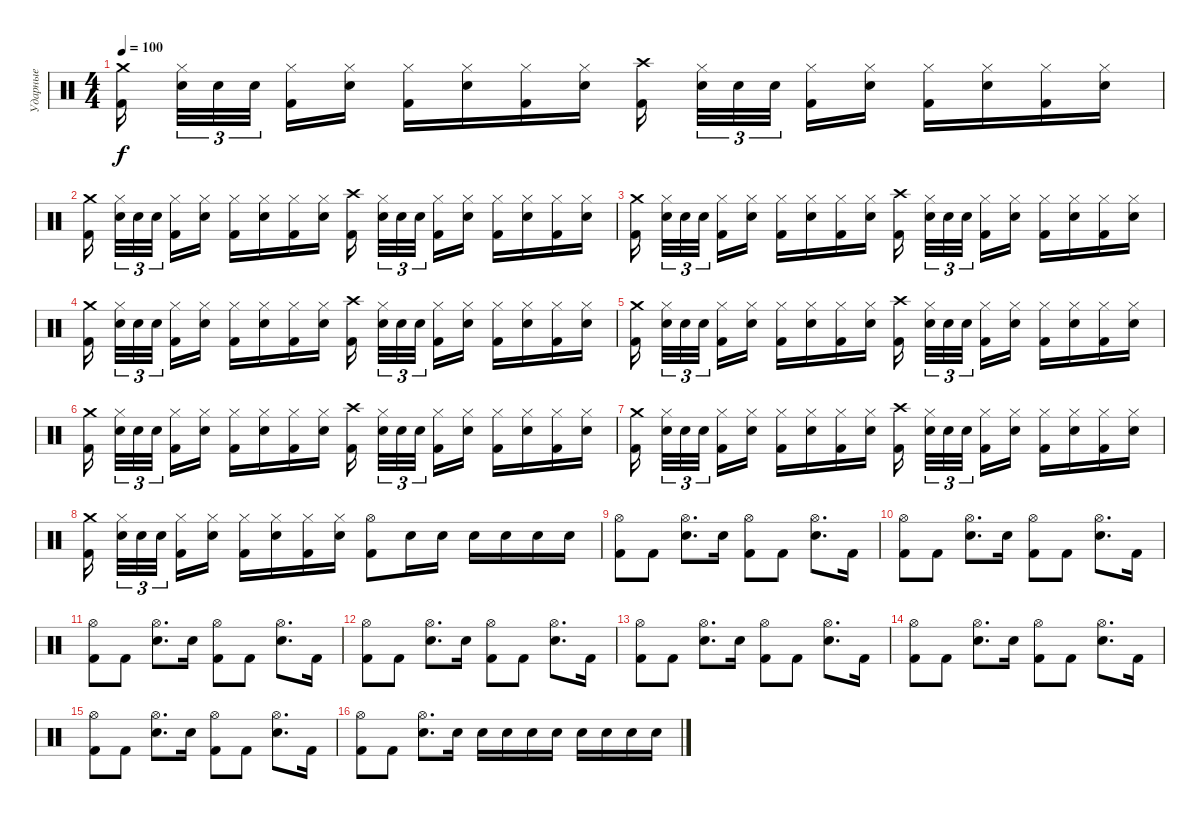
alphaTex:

\track ("Ударные" "Ударные") {instrument percussion}
\staff {score}
\articulation defaults
\ts (4 4)
\tempo 100
\clef neutral
\ks c
("Crash medium (hit)" "Kick (hit) 2").16{dy f beam splitsecondary} ("Hi-Hat (closed)" "Snare (hit) 2").32{tu (3 2)} "Snare (hit) 2".32{tu (3 2)} "Snare (hit) 2".32{tu (3 2) beam splitsecondary} ("Hi-Hat (closed)" "Kick (hit) 2").16 ("Hi-Hat (closed)" "Snare (hit) 2").16 ("Hi-Hat (closed)" "Kick (hit) 2").16 ("Hi-Hat (closed)" "Snare (hit) 2").16 ("Hi-Hat (closed)" "Kick (hit) 2").16 ("Hi-Hat (closed)" "Snare (hit) 2").16 ("Crash high (hit)" "Kick (hit) 2").16{beam splitsecondary} ("Hi-Hat (closed)" "Snare (hit) 2").32{tu (3 2)} "Snare (hit) 2".32{tu (3 2)} "Snare (hit) 2".32{tu (3 2) beam splitsecondary} ("Hi-Hat (closed)" "Kick (hit) 2").16 ("Hi-Hat (closed)" "Snare (hit) 2").16 ("Hi-Hat (closed)" "Kick (hit) 2").16 ("Hi-Hat (closed)" "Snare (hit) 2").16 ("Hi-Hat (closed)" "Kick (hit) 2").16 ("Hi-Hat (closed)" "Snare (hit) 2").16 |
("Crash medium (hit)" "Kick (hit) 2").16{beam splitsecondary} ("Hi-Hat (closed)" "Snare (hit) 2").32{tu (3 2)} "Snare (hit) 2".32{tu (3 2)} "Snare (hit) 2".32{tu (3 2) beam splitsecondary} ("Hi-Hat (closed)" "Kick (hit) 2").16 ("Hi-Hat (closed)" "Snare (hit) 2").16 ("Hi-Hat (closed)" "Kick (hit) 2").16 ("Hi-Hat (closed)" "Snare (hit) 2").16 ("Hi-Hat (closed)" "Kick (hit) 2").16 ("Hi-Hat (closed)" "Snare (hit) 2").16 ("Crash high (hit)" "Kick (hit) 2").16{beam splitsecondary} ("Hi-Hat (closed)" "Snare (hit) 2").32{tu (3 2)} "Snare (hit) 2".32{tu (3 2)} "Snare (hit) 2".32{tu (3 2) beam splitsecondary} ("Hi-Hat (closed)" "Kick (hit) 2").16 ("Hi-Hat (closed)" "Snare (hit) 2").16 ("Hi-Hat (closed)" "Kick (hit) 2").16 ("Hi-Hat (closed)" "Snare (hit) 2").16 ("Hi-Hat (closed)" "Kick (hit) 2").16 ("Hi-Hat (closed)" "Snare (hit) 2").16 |
("Crash medium (hit)" "Kick (hit) 2").16{beam splitsecondary} ("Hi-Hat (closed)" "Snare (hit) 2").32{tu (3 2)} "Snare (hit) 2".32{tu (3 2)} "Snare (hit) 2".32{tu (3 2) beam splitsecondary} ("Hi-Hat (closed)" "Kick (hit) 2").16 ("Hi-Hat (closed)" "Snare (hit) 2").16 ("Hi-Hat (closed)" "Kick (hit) 2").16 ("Hi-Hat (closed)" "Snare (hit) 2").16 ("Hi-Hat (closed)" "Kick (hit) 2").16 ("Hi-Hat (closed)" "Snare (hit) 2").16 ("Crash high (hit)" "Kick (hit) 2").16{beam splitsecondary} ("Hi-Hat (closed)" "Snare (hit) 2").32{tu (3 2)} "Snare (hit) 2".32{tu (3 2)} "Snare (hit) 2".32{tu (3 2) beam splitsecondary} ("Hi-Hat (closed)" "Kick (hit) 2").16 ("Hi-Hat (closed)" "Snare (hit) 2").16 ("Hi-Hat (closed)" "Kick (hit) 2").16 ("Hi-Hat (closed)" "Snare (hit) 2").16 ("Hi-Hat (closed)" "Kick (hit) 2").16 ("Hi-Hat (closed)" "Snare (hit) 2").16 |
("Crash medium (hit)" "Kick (hit) 2").16{beam splitsecondary} ("Hi-Hat (closed)" "Snare (hit) 2").32{tu (3 2)} "Snare (hit) 2".32{tu (3 2)} "Snare (hit) 2".32{tu (3 2) beam splitsecondary} ("Hi-Hat (closed)" "Kick (hit) 2").16 ("Hi-Hat (closed)" "Snare (hit) 2").16 ("Hi-Hat (closed)" "Kick (hit) 2").16 ("Hi-Hat (closed)" "Snare (hit) 2").16 ("Hi-Hat (closed)" "Kick (hit) 2").16 ("Hi-Hat (closed)" "Snare (hit) 2").16 ("Crash high (hit)" "Kick (hit) 2").16{beam splitsecondary} ("Hi-Hat (closed)" "Snare (hit) 2").32{tu (3 2)} "Snare (hit) 2".32{tu (3 2)} "Snare (hit) 2".32{tu (3 2) beam splitsecondary} ("Hi-Hat (closed)" "Kick (hit) 2").16 ("Hi-Hat (closed)" "Snare (hit) 2").16 ("Hi-Hat (closed)" "Kick (hit) 2").16 ("Hi-Hat (closed)" "Snare (hit) 2").16 ("Hi-Hat (closed)" "Kick (hit) 2").16 ("Hi-Hat (closed)" "Snare (hit) 2").16 |
("Crash medium (hit)" "Kick (hit) 2").16{beam splitsecondary} ("Hi-Hat (closed)" "Snare (hit) 2").32{tu (3 2)} "Snare (hit) 2".32{tu (3 2)} "Snare (hit) 2".32{tu (3 2) beam splitsecondary} ("Hi-Hat (closed)" "Kick (hit) 2").16 ("Hi-Hat (closed)" "Snare (hit) 2").16 ("Hi-Hat (closed)" "Kick (hit) 2").16 ("Hi-Hat (closed)" "Snare (hit) 2").16 ("Hi-Hat (closed)" "Kick (hit) 2").16 ("Hi-Hat (closed)" "Snare (hit) 2").16 ("Crash high (hit)" "Kick (hit) 2").16{beam splitsecondary} ("Hi-Hat (closed)" "Snare (hit) 2").32{tu (3 2)} "Snare (hit) 2".32{tu (3 2)} "Snare (hit) 2".32{tu (3 2) beam splitsecondary} ("Hi-Hat (closed)" "Kick (hit) 2").16 ("Hi-Hat (closed)" "Snare (hit) 2").16 ("Hi-Hat (closed)" "Kick (hit) 2").16 ("Hi-Hat (closed)" "Snare (hit) 2").16 ("Hi-Hat (closed)" "Kick (hit) 2").16 ("Hi-Hat (closed)" "Snare (hit) 2").16 |
("Crash medium (hit)" "Kick (hit) 2").16{beam splitsecondary} ("Hi-Hat (closed)" "Snare (hit) 2").32{tu (3 2)} "Snare (hit) 2".32{tu (3 2)} "Snare (hit) 2".32{tu (3 2) beam splitsecondary} ("Hi-Hat (closed)" "Kick (hit) 2").16 ("Hi-Hat (closed)" "Snare (hit) 2").16 ("Hi-Hat (closed)" "Kick (hit) 2").16 ("Hi-Hat (closed)" "Snare (hit) 2").16 ("Hi-Hat (closed)" "Kick (hit) 2").16 ("Hi-Hat (closed)" "Snare (hit) 2").16 ("Crash high (hit)" "Kick (hit) 2").16{beam splitsecondary} ("Hi-Hat (closed)" "Snare (hit) 2").32{tu (3 2)} "Snare (hit) 2".32{tu (3 2)} "Snare (hit) 2".32{tu (3 2) beam splitsecondary} ("Hi-Hat (closed)" "Kick (hit) 2").16 ("Hi-Hat (closed)" "Snare (hit) 2").16 ("Hi-Hat (closed)" "Kick (hit) 2").16 ("Hi-Hat (closed)" "Snare (hit) 2").16 ("Hi-Hat (closed)" "Kick (hit) 2").16 ("Hi-Hat (closed)" "Snare (hit) 2").16 |
("Crash medium (hit)" "Kick (hit) 2").16{beam splitsecondary} ("Hi-Hat (closed)" "Snare (hit) 2").32{tu (3 2)} "Snare (hit) 2".32{tu (3 2)} "Snare (hit) 2".32{tu (3 2) beam splitsecondary} ("Hi-Hat (closed)" "Kick (hit) 2").16 ("Hi-Hat (closed)" "Snare (hit) 2").16 ("Hi-Hat (closed)" "Kick (hit) 2").16 ("Hi-Hat (closed)" "Snare (hit) 2").16 ("Hi-Hat (closed)" "Kick (hit) 2").16 ("Hi-Hat (closed)" "Snare (hit) 2").16 ("Crash high (hit)" "Kick (hit) 2").16{beam splitsecondary} ("Hi-Hat (closed)" "Snare (hit) 2").32{tu (3 2)} "Snare (hit) 2".32{tu (3 2)} "Snare (hit) 2".32{tu (3 2) beam splitsecondary} ("Hi-Hat (closed)" "Kick (hit) 2").16 ("Hi-Hat (closed)" "Snare (hit) 2").16 ("Hi-Hat (closed)" "Kick (hit) 2").16 ("Hi-Hat (closed)" "Snare (hit) 2").16 ("Hi-Hat (closed)" "Kick (hit) 2").16 ("Hi-Hat (closed)" "Snare (hit) 2").16 |
("Crash medium (hit)" "Kick (hit) 2").16{beam splitsecondary} ("Hi-Hat (closed)" "Snare (hit) 2").32{tu (3 2)} "Snare (hit) 2".32{tu (3 2)} "Snare (hit) 2".32{tu (3 2) beam splitsecondary} ("Hi-Hat (closed)" "Kick (hit) 2").16 ("Hi-Hat (closed)" "Snare (hit) 2").16 ("Hi-Hat (closed)" "Kick (hit) 2").16 ("Hi-Hat (closed)" "Snare (hit) 2").16 ("Hi-Hat (closed)" "Kick (hit) 2").16 ("Hi-Hat (closed)" "Snare (hit) 2").16 ("Hi-Hat (open)" "Kick (hit) 2").8 "Snare (hit) 2".16 "Snare (hit) 2".16 "Snare (hit) 2".16 "Snare (hit) 2".16 "Snare (hit) 2".16 "Snare (hit) 2".16 |
("Hi-Hat (open)" "Kick (hit) 2").8 "Kick (hit) 2".8 ("Hi-Hat (open)" "Snare (hit) 2").8{d} "Snare (hit) 2".16 ("Hi-Hat (open)" "Kick (hit) 2").8 "Kick (hit) 2".8 ("Hi-Hat (open)" "Snare (hit) 2").8{d} "Kick (hit) 2".16 |
("Hi-Hat (open)" "Kick (hit) 2").8 "Kick (hit) 2".8 ("Hi-Hat (open)" "Snare (hit) 2").8{d} "Snare (hit) 2".16 ("Hi-Hat (open)" "Kick (hit) 2").8 "Kick (hit) 2".8 ("Hi-Hat (open)" "Snare (hit) 2").8{d} "Kick (hit) 2".16 |
("Hi-Hat (open)" "Kick (hit) 2").8 "Kick (hit) 2".8 ("Hi-Hat (open)" "Snare (hit) 2").8{d} "Snare (hit) 2".16 ("Hi-Hat (open)" "Kick (hit) 2").8 "Kick (hit) 2".8 ("Hi-Hat (open)" "Snare (hit) 2").8{d} "Kick (hit) 2".16 |
("Hi-Hat (open)" "Kick (hit) 2").8 "Kick (hit) 2".8 ("Hi-Hat (open)" "Snare (hit) 2").8{d} "Snare (hit) 2".16 ("Hi-Hat (open)" "Kick (hit) 2").8 "Kick (hit) 2".8 ("Hi-Hat (open)" "Snare (hit) 2").8{d} "Kick (hit) 2".16 |
("Hi-Hat (open)" "Kick (hit) 2").8 "Kick (hit) 2".8 ("Hi-Hat (open)" "Snare (hit) 2").8{d} "Snare (hit) 2".16 ("Hi-Hat (open)" "Kick (hit) 2").8 "Kick (hit) 2".8 ("Hi-Hat (open)" "Snare (hit) 2").8{d} "Kick (hit) 2".16 |
("Hi-Hat (open)" "Kick (hit) 2").8 "Kick (hit) 2".8 ("Hi-Hat (open)" "Snare (hit) 2").8{d} "Snare (hit) 2".16 ("Hi-Hat (open)" "Kick (hit) 2").8 "Kick (hit) 2".8 ("Hi-Hat (open)" "Snare (hit) 2").8{d} "Kick (hit) 2".16 |
("Hi-Hat (open)" "Kick (hit) 2").8 "Kick (hit) 2".8 ("Hi-Hat (open)" "Snare (hit) 2").8{d} "Snare (hit) 2".16 ("Hi-Hat (open)" "Kick (hit) 2").8 "Kick (hit) 2".8 ("Hi-Hat (open)" "Snare (hit) 2").8{d} "Kick (hit) 2".16 |
("Hi-Hat (open)" "Kick (hit) 2").8 "Kick (hit) 2".8 ("Hi-Hat (open)" "Snare (hit) 2").8{d} "Snare (hit) 2".16 "Snare (hit) 2".16 "Snare (hit) 2".16 "Snare (hit) 2".16 "Snare (hit) 2".16 "Snare (hit) 2".16 "Snare (hit) 2".16 "Snare (hit) 2".16 "Snare (hit) 2".16
